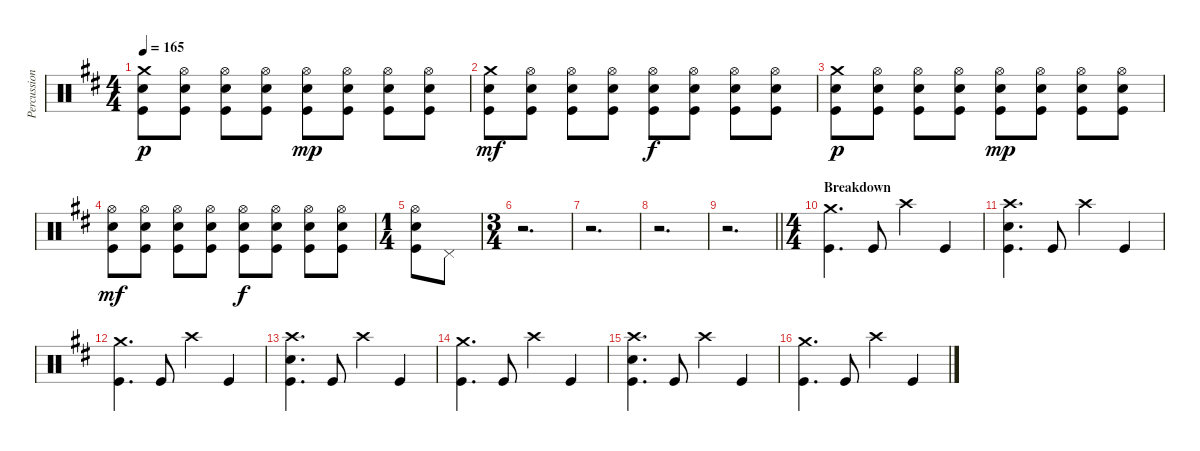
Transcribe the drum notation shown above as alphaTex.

\track ("Percussion" "Percussion") {instrument percussion}
\staff {score}
\articulation defaults
\ts (4 4)
\tempo 165
\clef neutral
\ks d
("Crash medium (hit)" "Electric Snare (hit)" "Kick (hit)").8{dy p} ("Hi-Hat (open)" "Electric Snare (hit)" "Kick (hit)").8 ("Hi-Hat (open)" "Electric Snare (hit)" "Kick (hit)").8 ("Hi-Hat (open)" "Electric Snare (hit)" "Kick (hit)").8 ("Hi-Hat (open)" "Electric Snare (hit)" "Kick (hit)").8{dy mp} ("Hi-Hat (open)" "Electric Snare (hit)" "Kick (hit)").8 ("Hi-Hat (open)" "Electric Snare (hit)" "Kick (hit)").8 ("Hi-Hat (open)" "Electric Snare (hit)" "Kick (hit)").8 |
("Crash medium (hit)" "Electric Snare (hit)" "Kick (hit)").8{dy mf} ("Hi-Hat (open)" "Electric Snare (hit)" "Kick (hit)").8 ("Hi-Hat (open)" "Electric Snare (hit)" "Kick (hit)").8 ("Hi-Hat (open)" "Electric Snare (hit)" "Kick (hit)").8 ("Hi-Hat (open)" "Electric Snare (hit)" "Kick (hit)").8{dy f} ("Hi-Hat (open)" "Electric Snare (hit)" "Kick (hit)").8 ("Hi-Hat (open)" "Electric Snare (hit)" "Kick (hit)").8 ("Hi-Hat (open)" "Electric Snare (hit)" "Kick (hit)").8 |
("Crash medium (hit)" "Electric Snare (hit)" "Kick (hit)").8{dy p} ("Hi-Hat (open)" "Electric Snare (hit)" "Kick (hit)").8 ("Hi-Hat (open)" "Electric Snare (hit)" "Kick (hit)").8 ("Hi-Hat (open)" "Electric Snare (hit)" "Kick (hit)").8 ("Hi-Hat (open)" "Electric Snare (hit)" "Kick (hit)").8{dy mp} ("Hi-Hat (open)" "Electric Snare (hit)" "Kick (hit)").8 ("Hi-Hat (open)" "Electric Snare (hit)" "Kick (hit)").8 ("Hi-Hat (open)" "Electric Snare (hit)" "Kick (hit)").8 |
("Hi-Hat (open)" "Electric Snare (hit)" "Kick (hit)").8{dy mf} ("Hi-Hat (open)" "Electric Snare (hit)" "Kick (hit)").8 ("Hi-Hat (open)" "Electric Snare (hit)" "Kick (hit)").8 ("Hi-Hat (open)" "Electric Snare (hit)" "Kick (hit)").8 ("Hi-Hat (open)" "Electric Snare (hit)" "Kick (hit)").8{dy f} ("Hi-Hat (open)" "Electric Snare (hit)" "Kick (hit)").8 ("Hi-Hat (open)" "Electric Snare (hit)" "Kick (hit)").8 ("Hi-Hat (open)" "Electric Snare (hit)" "Kick (hit)").8 |
\ts (1 4)
("Hi-Hat (open)" "Electric Snare (hit)" "Kick (hit)").8 "Pedal Hi-Hat (hit)".8 |
\ts (3 4)
r.2{d} |
r.2{d} |
r.2{d} |
\barLineRight lightlight
r.2{d} |
\ts (4 4)
\section ("" "Breakdown")
("Crash medium (hit)" "Kick (hit)").4{d} "Kick (hit)".8 "Crash high (hit)".4 "Kick (hit)".4 |
("Crash high (hit)" "Electric Snare (hit)" "Kick (hit)").4{d} "Kick (hit)".8 "Crash high (hit)".4 "Kick (hit)".4 |
("Crash medium (hit)" "Kick (hit)").4{d} "Kick (hit)".8 "Crash high (hit)".4 "Kick (hit)".4 |
("Crash high (hit)" "Electric Snare (hit)" "Kick (hit)").4{d} "Kick (hit)".8 "Crash high (hit)".4 "Kick (hit)".4 |
("Crash medium (hit)" "Kick (hit)").4{d} "Kick (hit)".8 "Crash high (hit)".4 "Kick (hit)".4 |
("Crash high (hit)" "Electric Snare (hit)" "Kick (hit)").4{d} "Kick (hit)".8 "Crash high (hit)".4 "Kick (hit)".4 |
("Crash medium (hit)" "Kick (hit)").4{d} "Kick (hit)".8 "Crash high (hit)".4 "Kick (hit)".4
